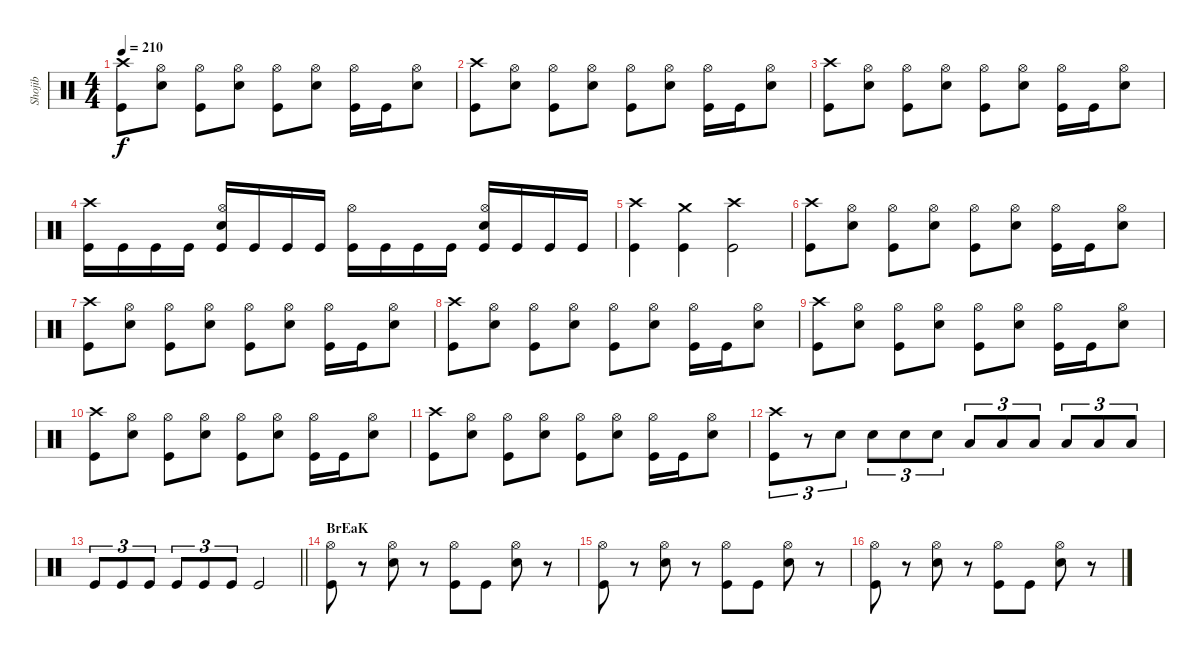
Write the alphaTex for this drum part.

\track ("Shojib" "Shojib") {instrument percussion}
\staff {score}
\articulation defaults
\ts (4 4)
\tempo 210
\clef neutral
\ks c
("Crash high (hit)" "Kick (hit)").8{dy f} ("Hi-Hat (open)" "Electric Snare (hit)").8 ("Hi-Hat (open)" "Kick (hit)").8 ("Hi-Hat (open)" "Electric Snare (hit)").8 ("Hi-Hat (open)" "Kick (hit)").8 ("Hi-Hat (open)" "Electric Snare (hit)").8 ("Hi-Hat (open)" "Kick (hit)").16 "Kick (hit)".16 ("Hi-Hat (open)" "Electric Snare (hit)").8 |
("Crash high (hit)" "Kick (hit)").8 ("Hi-Hat (open)" "Electric Snare (hit)").8 ("Hi-Hat (open)" "Kick (hit)").8 ("Hi-Hat (open)" "Electric Snare (hit)").8 ("Hi-Hat (open)" "Kick (hit)").8 ("Hi-Hat (open)" "Electric Snare (hit)").8 ("Hi-Hat (open)" "Kick (hit)").16 "Kick (hit)".16 ("Hi-Hat (open)" "Electric Snare (hit)").8 |
("Crash high (hit)" "Kick (hit)").8 ("Hi-Hat (open)" "Electric Snare (hit)").8 ("Hi-Hat (open)" "Kick (hit)").8 ("Hi-Hat (open)" "Electric Snare (hit)").8 ("Hi-Hat (open)" "Kick (hit)").8 ("Hi-Hat (open)" "Electric Snare (hit)").8 ("Hi-Hat (open)" "Kick (hit)").16 "Kick (hit)".16 ("Hi-Hat (open)" "Electric Snare (hit)").8 |
("Crash high (hit)" "Kick (hit)").16 "Kick (hit)".16 "Kick (hit)".16 "Kick (hit)".16 ("Hi-Hat (open)" "Electric Snare (hit)" "Kick (hit)").16 "Kick (hit)".16 "Kick (hit)".16 "Kick (hit)".16 ("Hi-Hat (open)" "Kick (hit)").16 "Kick (hit)".16 "Kick (hit)".16 "Kick (hit)".16 ("Hi-Hat (open)" "Electric Snare (hit)" "Kick (hit)").16 "Kick (hit)".16 "Kick (hit)".16 "Kick (hit)".16 |
("Crash high (hit)" "Kick (hit)").4 ("Crash medium (hit)" "Kick (hit)").4 ("Crash high (hit)" "Kick (hit)").2 |
("Crash high (hit)" "Kick (hit)").8 ("Hi-Hat (open)" "Electric Snare (hit)").8 ("Hi-Hat (open)" "Kick (hit)").8 ("Hi-Hat (open)" "Electric Snare (hit)").8 ("Hi-Hat (open)" "Kick (hit)").8 ("Hi-Hat (open)" "Electric Snare (hit)").8 ("Hi-Hat (open)" "Kick (hit)").16 "Kick (hit)".16 ("Hi-Hat (open)" "Electric Snare (hit)").8 |
("Crash high (hit)" "Kick (hit)").8 ("Hi-Hat (open)" "Electric Snare (hit)").8 ("Hi-Hat (open)" "Kick (hit)").8 ("Hi-Hat (open)" "Electric Snare (hit)").8 ("Hi-Hat (open)" "Kick (hit)").8 ("Hi-Hat (open)" "Electric Snare (hit)").8 ("Hi-Hat (open)" "Kick (hit)").16 "Kick (hit)".16 ("Hi-Hat (open)" "Electric Snare (hit)").8 |
("Crash high (hit)" "Kick (hit)").8 ("Hi-Hat (open)" "Electric Snare (hit)").8 ("Hi-Hat (open)" "Kick (hit)").8 ("Hi-Hat (open)" "Electric Snare (hit)").8 ("Hi-Hat (open)" "Kick (hit)").8 ("Hi-Hat (open)" "Electric Snare (hit)").8 ("Hi-Hat (open)" "Kick (hit)").16 "Kick (hit)".16 ("Hi-Hat (open)" "Electric Snare (hit)").8 |
("Crash high (hit)" "Kick (hit)").8 ("Hi-Hat (open)" "Electric Snare (hit)").8 ("Hi-Hat (open)" "Kick (hit)").8 ("Hi-Hat (open)" "Electric Snare (hit)").8 ("Hi-Hat (open)" "Kick (hit)").8 ("Hi-Hat (open)" "Electric Snare (hit)").8 ("Hi-Hat (open)" "Kick (hit)").16 "Kick (hit)".16 ("Hi-Hat (open)" "Electric Snare (hit)").8 |
("Crash high (hit)" "Kick (hit)").8 ("Hi-Hat (open)" "Electric Snare (hit)").8 ("Hi-Hat (open)" "Kick (hit)").8 ("Hi-Hat (open)" "Electric Snare (hit)").8 ("Hi-Hat (open)" "Kick (hit)").8 ("Hi-Hat (open)" "Electric Snare (hit)").8 ("Hi-Hat (open)" "Kick (hit)").16 "Kick (hit)".16 ("Hi-Hat (open)" "Electric Snare (hit)").8 |
("Crash high (hit)" "Kick (hit)").8 ("Hi-Hat (open)" "Electric Snare (hit)").8 ("Hi-Hat (open)" "Kick (hit)").8 ("Hi-Hat (open)" "Electric Snare (hit)").8 ("Hi-Hat (open)" "Kick (hit)").8 ("Hi-Hat (open)" "Electric Snare (hit)").8 ("Hi-Hat (open)" "Kick (hit)").16 "Kick (hit)".16 ("Hi-Hat (open)" "Electric Snare (hit)").8 |
("Crash high (hit)" "Kick (hit)").8{tu (3 2)} r.8{tu (3 2)} "Electric Snare (hit)".8{tu (3 2)} "Electric Snare (hit)".8{tu (3 2)} "Electric Snare (hit)".8{tu (3 2)} "Electric Snare (hit)".8{tu (3 2)} "Low Floor Tom (hit)".8{tu (3 2)} "Low Floor Tom (hit)".8{tu (3 2)} "Low Floor Tom (hit)".8{tu (3 2)} "Low Tom (hit)".8{tu (3 2)} "Low Tom (hit)".8{tu (3 2)} "Low Tom (hit)".8{tu (3 2)} |
\barLineRight lightlight "Kick (hit)".8{tu (3 2)} "Kick (hit)".8{tu (3 2)} "Kick (hit)".8{tu (3 2)} "Kick (hit)".8{tu (3 2)} "Kick (hit)".8{tu (3 2)} "Kick (hit)".8{tu (3 2)} "Kick (hit)".2
|
\section ("" "BrEaK")
("Hi-Hat (open)" "Kick (hit)").8 r.8 ("Hi-Hat (open)" "Electric Snare (hit)").8 r.8 ("Hi-Hat (open)" "Kick (hit)").8 "Kick (hit)".8 ("Hi-Hat (open)" "Electric Snare (hit)").8 r.8 |
("Hi-Hat (open)" "Kick (hit)").8 r.8 ("Hi-Hat (open)" "Electric Snare (hit)").8 r.8 ("Hi-Hat (open)" "Kick (hit)").8 "Kick (hit)".8 ("Hi-Hat (open)" "Electric Snare (hit)").8 r.8 |
("Hi-Hat (open)" "Kick (hit)").8 r.8 ("Hi-Hat (open)" "Electric Snare (hit)").8 r.8 ("Hi-Hat (open)" "Kick (hit)").8 "Kick (hit)".8 ("Hi-Hat (open)" "Electric Snare (hit)").8 r.8
